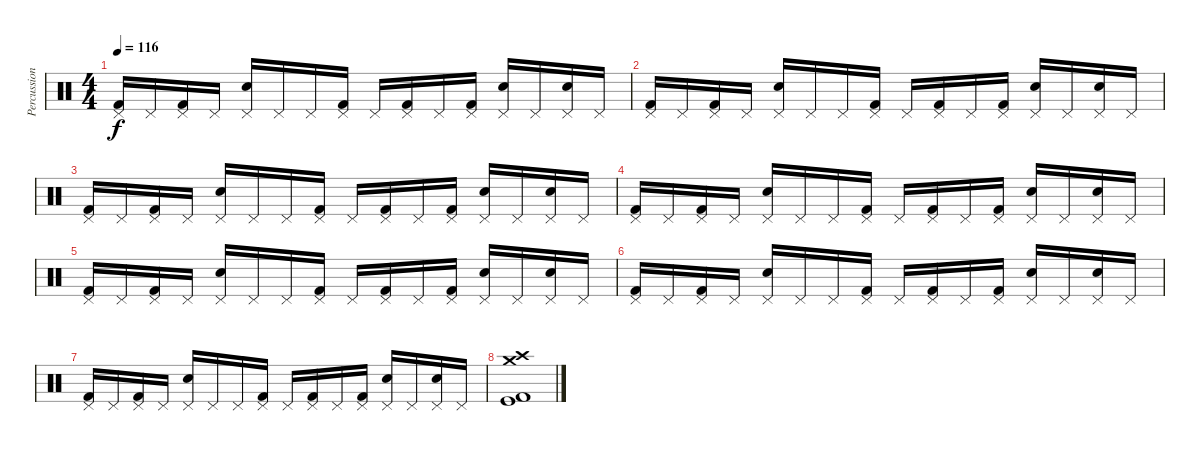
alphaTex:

\track ("Percussions" "Percussion") {instrument percussion}
\staff {score}
\articulation defaults
\ts (4 4)
\tempo 116
\clef neutral
\ks c
("Pedal Hi-Hat (hit)" "Kick (hit) 2").16{dy f} "Pedal Hi-Hat (hit)".16 ("Pedal Hi-Hat (hit)" "Kick (hit) 2").16 "Pedal Hi-Hat (hit)".16 ("Pedal Hi-Hat (hit)" "Snare (hit) 2").16 "Pedal Hi-Hat (hit)".16 "Pedal Hi-Hat (hit)".16 ("Pedal Hi-Hat (hit)" "Kick (hit) 2").16 "Pedal Hi-Hat (hit)".16 ("Pedal Hi-Hat (hit)" "Kick (hit) 2").16 "Pedal Hi-Hat (hit)".16 ("Pedal Hi-Hat (hit)" "Kick (hit) 2").16 ("Pedal Hi-Hat (hit)" "Snare (hit) 2").16 "Pedal Hi-Hat (hit)".16 ("Pedal Hi-Hat (hit)" "Snare (hit) 2").16 "Pedal Hi-Hat (hit)".16 |
("Pedal Hi-Hat (hit)" "Kick (hit) 2").16 "Pedal Hi-Hat (hit)".16 ("Pedal Hi-Hat (hit)" "Kick (hit) 2").16 "Pedal Hi-Hat (hit)".16 ("Pedal Hi-Hat (hit)" "Snare (hit) 2").16 "Pedal Hi-Hat (hit)".16 "Pedal Hi-Hat (hit)".16 ("Pedal Hi-Hat (hit)" "Kick (hit) 2").16 "Pedal Hi-Hat (hit)".16 ("Pedal Hi-Hat (hit)" "Kick (hit) 2").16 "Pedal Hi-Hat (hit)".16 ("Pedal Hi-Hat (hit)" "Kick (hit) 2").16 ("Pedal Hi-Hat (hit)" "Snare (hit) 2").16 "Pedal Hi-Hat (hit)".16 ("Pedal Hi-Hat (hit)" "Snare (hit) 2").16 "Pedal Hi-Hat (hit)".16 |
("Pedal Hi-Hat (hit)" "Kick (hit) 2").16 "Pedal Hi-Hat (hit)".16 ("Pedal Hi-Hat (hit)" "Kick (hit) 2").16 "Pedal Hi-Hat (hit)".16 ("Pedal Hi-Hat (hit)" "Snare (hit) 2").16 "Pedal Hi-Hat (hit)".16 "Pedal Hi-Hat (hit)".16 ("Pedal Hi-Hat (hit)" "Kick (hit) 2").16 "Pedal Hi-Hat (hit)".16 ("Pedal Hi-Hat (hit)" "Kick (hit) 2").16 "Pedal Hi-Hat (hit)".16 ("Pedal Hi-Hat (hit)" "Kick (hit) 2").16 ("Pedal Hi-Hat (hit)" "Snare (hit) 2").16 "Pedal Hi-Hat (hit)".16 ("Pedal Hi-Hat (hit)" "Snare (hit) 2").16 "Pedal Hi-Hat (hit)".16 |
("Pedal Hi-Hat (hit)" "Kick (hit) 2").16 "Pedal Hi-Hat (hit)".16 ("Pedal Hi-Hat (hit)" "Kick (hit) 2").16 "Pedal Hi-Hat (hit)".16 ("Pedal Hi-Hat (hit)" "Snare (hit) 2").16 "Pedal Hi-Hat (hit)".16 "Pedal Hi-Hat (hit)".16 ("Pedal Hi-Hat (hit)" "Kick (hit) 2").16 "Pedal Hi-Hat (hit)".16 ("Pedal Hi-Hat (hit)" "Kick (hit) 2").16 "Pedal Hi-Hat (hit)".16 ("Pedal Hi-Hat (hit)" "Kick (hit) 2").16 ("Pedal Hi-Hat (hit)" "Snare (hit) 2").16 "Pedal Hi-Hat (hit)".16 ("Pedal Hi-Hat (hit)" "Snare (hit) 2").16 "Pedal Hi-Hat (hit)".16 |
("Pedal Hi-Hat (hit)" "Kick (hit) 2").16 "Pedal Hi-Hat (hit)".16 ("Pedal Hi-Hat (hit)" "Kick (hit) 2").16 "Pedal Hi-Hat (hit)".16 ("Pedal Hi-Hat (hit)" "Snare (hit) 2").16 "Pedal Hi-Hat (hit)".16 "Pedal Hi-Hat (hit)".16 ("Pedal Hi-Hat (hit)" "Kick (hit) 2").16 "Pedal Hi-Hat (hit)".16 ("Pedal Hi-Hat (hit)" "Kick (hit) 2").16 "Pedal Hi-Hat (hit)".16 ("Pedal Hi-Hat (hit)" "Kick (hit) 2").16 ("Pedal Hi-Hat (hit)" "Snare (hit) 2").16 "Pedal Hi-Hat (hit)".16 ("Pedal Hi-Hat (hit)" "Snare (hit) 2").16 "Pedal Hi-Hat (hit)".16 |
("Pedal Hi-Hat (hit)" "Kick (hit) 2").16 "Pedal Hi-Hat (hit)".16 ("Pedal Hi-Hat (hit)" "Kick (hit) 2").16 "Pedal Hi-Hat (hit)".16 ("Pedal Hi-Hat (hit)" "Snare (hit) 2").16 "Pedal Hi-Hat (hit)".16 "Pedal Hi-Hat (hit)".16 ("Pedal Hi-Hat (hit)" "Kick (hit) 2").16 "Pedal Hi-Hat (hit)".16 ("Pedal Hi-Hat (hit)" "Kick (hit) 2").16 "Pedal Hi-Hat (hit)".16 ("Pedal Hi-Hat (hit)" "Kick (hit) 2").16 ("Pedal Hi-Hat (hit)" "Snare (hit) 2").16 "Pedal Hi-Hat (hit)".16 ("Pedal Hi-Hat (hit)" "Snare (hit) 2").16 "Pedal Hi-Hat (hit)".16 |
("Pedal Hi-Hat (hit)" "Kick (hit) 2").16 "Pedal Hi-Hat (hit)".16 ("Pedal Hi-Hat (hit)" "Kick (hit) 2").16 "Pedal Hi-Hat (hit)".16 ("Pedal Hi-Hat (hit)" "Snare (hit) 2").16 "Pedal Hi-Hat (hit)".16 "Pedal Hi-Hat (hit)".16 ("Pedal Hi-Hat (hit)" "Kick (hit) 2").16 "Pedal Hi-Hat (hit)".16 ("Pedal Hi-Hat (hit)" "Kick (hit) 2").16 "Pedal Hi-Hat (hit)".16 ("Pedal Hi-Hat (hit)" "Kick (hit) 2").16 ("Pedal Hi-Hat (hit)" "Snare (hit) 2").16 "Pedal Hi-Hat (hit)".16 ("Pedal Hi-Hat (hit)" "Snare (hit) 2").16 "Pedal Hi-Hat (hit)".16 |
("Crash high (hit)" "Crash medium (hit)" "Kick (hit)" "Kick (hit) 2").1
